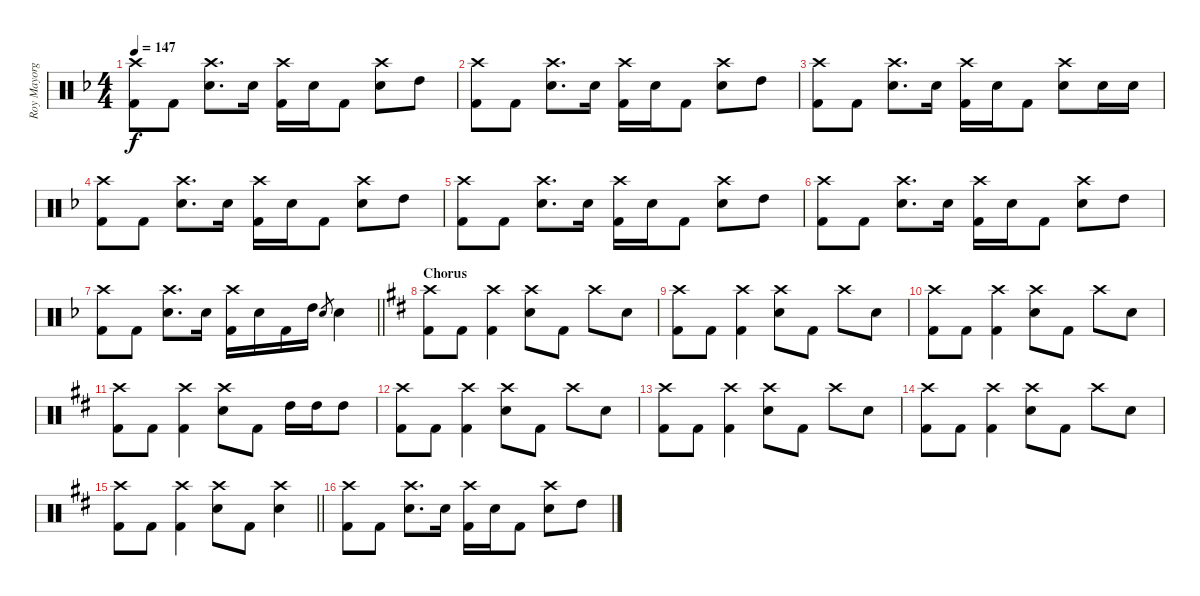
\track ("Roy Mayorga (Drums)" "Roy Mayorg") {instrument percussion}
\staff {score}
\articulation defaults
\ts (4 4)
\tempo 147
\clef neutral
\ks f
("Crash high (hit)" "Kick (hit) 2").8{dy f} "Kick (hit) 2".8 ("Crash high (hit)" "Snare (hit) 2").8{d} "Snare (hit) 2".16 ("Crash high (hit)" "Kick (hit) 2").16 "Snare (hit) 2".16 "Kick (hit) 2".8 ("Crash high (hit)" "Snare (hit) 2").8 "High Tom (hit)".8 |
("Crash high (hit)" "Kick (hit) 2").8 "Kick (hit) 2".8 ("Crash high (hit)" "Snare (hit) 2").8{d} "Snare (hit) 2".16 ("Crash high (hit)" "Kick (hit) 2").16 "Snare (hit) 2".16 "Kick (hit) 2".8 ("Crash high (hit)" "Snare (hit) 2").8 "High Tom (hit)".8 |
("Crash high (hit)" "Kick (hit) 2").8 "Kick (hit) 2".8 ("Crash high (hit)" "Snare (hit) 2").8{d} "Snare (hit) 2".16 ("Crash high (hit)" "Kick (hit) 2").16 "Snare (hit) 2".16 "Kick (hit) 2".8 ("Crash high (hit)" "Snare (hit) 2").8 "Snare (hit) 2".16 "Snare (hit) 2".16 |
("Crash high (hit)" "Kick (hit) 2").8 "Kick (hit) 2".8 ("Crash high (hit)" "Snare (hit) 2").8{d} "Snare (hit) 2".16 ("Crash high (hit)" "Kick (hit) 2").16 "Snare (hit) 2".16 "Kick (hit) 2".8 ("Crash high (hit)" "Snare (hit) 2").8 "High Tom (hit)".8 |
("Crash high (hit)" "Kick (hit) 2").8 "Kick (hit) 2".8 ("Crash high (hit)" "Snare (hit) 2").8{d} "Snare (hit) 2".16 ("Crash high (hit)" "Kick (hit) 2").16 "Snare (hit) 2".16 "Kick (hit) 2".8 ("Crash high (hit)" "Snare (hit) 2").8 "High Tom (hit)".8 |
("Crash high (hit)" "Kick (hit) 2").8 "Kick (hit) 2".8 ("Crash high (hit)" "Snare (hit) 2").8{d} "Snare (hit) 2".16 ("Crash high (hit)" "Kick (hit) 2").16 "Snare (hit) 2".16 "Kick (hit) 2".8 ("Crash high (hit)" "Snare (hit) 2").8 "High Tom (hit)".8 |
\barLineRight lightlight
("Crash high (hit)" "Kick (hit) 2").8 "Kick (hit) 2".8 ("Crash high (hit)" "Snare (hit) 2").8{d} "Snare (hit) 2".16 ("Crash high (hit)" "Kick (hit) 2").16 "Snare (hit) 2".16 "Kick (hit) 2".16 "High Tom (hit)".16 "Snare (hit) 2".8{gr} "Snare (hit) 2".4 |
\section ("" "Chorus")
\ks d
("Crash high (hit)" "Kick (hit) 2").8 "Kick (hit) 2".8 ("Crash high (hit)" "Kick (hit) 2").4 ("Crash high (hit)" "Snare (hit) 2").8 "Kick (hit) 2".8 "Crash high (hit)".8 "Snare (hit) 2".8 |
("Crash high (hit)" "Kick (hit) 2").8 "Kick (hit) 2".8 ("Crash high (hit)" "Kick (hit) 2").4 ("Crash high (hit)" "Snare (hit) 2").8 "Kick (hit) 2".8 "Crash high (hit)".8 "Snare (hit) 2".8 |
("Crash high (hit)" "Kick (hit) 2").8 "Kick (hit) 2".8 ("Crash high (hit)" "Kick (hit) 2").4 ("Crash high (hit)" "Snare (hit) 2").8 "Kick (hit) 2".8 "Crash high (hit)".8 "Snare (hit) 2".8 |
("Crash high (hit)" "Kick (hit) 2").8 "Kick (hit) 2".8 ("Crash high (hit)" "Kick (hit) 2").4 ("Crash high (hit)" "Snare (hit) 2").8 "Kick (hit) 2".8 "High Tom (hit)".16 "High Tom (hit)".16 "High Tom (hit)".8 |
("Crash high (hit)" "Kick (hit) 2").8 "Kick (hit) 2".8 ("Crash high (hit)" "Kick (hit) 2").4 ("Crash high (hit)" "Snare (hit) 2").8 "Kick (hit) 2".8 "Crash high (hit)".8 "Snare (hit) 2".8 |
("Crash high (hit)" "Kick (hit) 2").8 "Kick (hit) 2".8 ("Crash high (hit)" "Kick (hit) 2").4 ("Crash high (hit)" "Snare (hit) 2").8 "Kick (hit) 2".8 "Crash high (hit)".8 "Snare (hit) 2".8 |
("Crash high (hit)" "Kick (hit) 2").8 "Kick (hit) 2".8 ("Crash high (hit)" "Kick (hit) 2").4 ("Crash high (hit)" "Snare (hit) 2").8 "Kick (hit) 2".8 "Crash high (hit)".8 "Snare (hit) 2".8 |
\barLineRight lightlight
("Crash high (hit)" "Kick (hit) 2").8 "Kick (hit) 2".8 ("Crash high (hit)" "Kick (hit) 2").4 ("Crash high (hit)" "Snare (hit) 2").8 "Kick (hit) 2".8 ("Crash high (hit)" "Snare (hit) 2").4 |
("Crash high (hit)" "Kick (hit) 2").8 "Kick (hit) 2".8 ("Crash high (hit)" "Snare (hit) 2").8{d} "Snare (hit) 2".16 ("Crash high (hit)" "Kick (hit) 2").16 "Snare (hit) 2".16 "Kick (hit) 2".8 ("Crash high (hit)" "Snare (hit) 2").8 "High Tom (hit)".8
